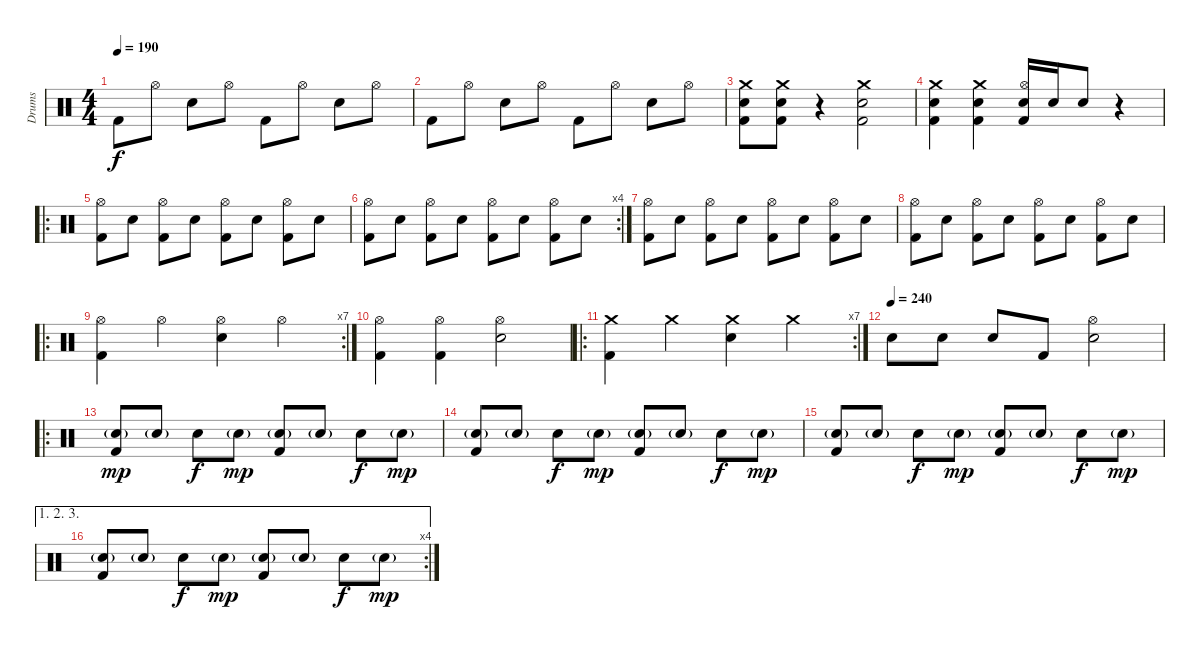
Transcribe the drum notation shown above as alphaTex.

\track ("Drums" "Drums") {instrument percussion}
\staff {score}
\articulation defaults
\ts (4 4)
\tempo 190
\clef neutral
\ks c "Kick (hit) 2".8{dy f} "Hi-Hat (open)".8 "Electric Snare (hit)".8 "Hi-Hat (open)".8 "Kick (hit) 2".8 "Hi-Hat (open)".8 "Electric Snare (hit)".8 "Hi-Hat (open)".8
|
"Kick (hit) 2".8 "Hi-Hat (open)".8 "Electric Snare (hit)".8 "Hi-Hat (open)".8 "Kick (hit) 2".8 "Hi-Hat (open)".8 "Electric Snare (hit)".8 "Hi-Hat (open)".8 |
("Crash medium (hit)" "Electric Snare (hit)" "Kick (hit) 2").8 ("Crash medium (hit)" "Electric Snare (hit)" "Kick (hit) 2").8 r.4 ("Crash medium (hit)" "Electric Snare (hit)" "Kick (hit) 2").2 |
("Crash medium (hit)" "Electric Snare (hit)" "Kick (hit) 2").4 ("Crash medium (hit)" "Electric Snare (hit)" "Kick (hit) 2").4 ("Hi-Hat (open)" "Electric Snare (hit)" "Kick (hit) 2").16 "Electric Snare (hit)".16 "Electric Snare (hit)".8 r.4 |
\ro
("Hi-Hat (open)" "Kick (hit) 2").8 "Electric Snare (hit)".8 ("Hi-Hat (open)" "Kick (hit) 2").8 "Electric Snare (hit)".8 ("Hi-Hat (open)" "Kick (hit) 2").8 "Electric Snare (hit)".8 ("Hi-Hat (open)" "Kick (hit) 2").8 "Electric Snare (hit)".8 |
\rc 4
("Hi-Hat (open)" "Kick (hit) 2").8 "Electric Snare (hit)".8 ("Hi-Hat (open)" "Kick (hit) 2").8 "Electric Snare (hit)".8 ("Hi-Hat (open)" "Kick (hit) 2").8 "Electric Snare (hit)".8 ("Hi-Hat (open)" "Kick (hit) 2").8 "Electric Snare (hit)".8 |
("Hi-Hat (open)" "Kick (hit) 2").8 "Electric Snare (hit)".8 ("Hi-Hat (open)" "Kick (hit) 2").8 "Electric Snare (hit)".8 ("Hi-Hat (open)" "Kick (hit) 2").8 "Electric Snare (hit)".8 ("Hi-Hat (open)" "Kick (hit) 2").8 "Electric Snare (hit)".8 |
("Hi-Hat (open)" "Kick (hit) 2").8 "Electric Snare (hit)".8 ("Hi-Hat (open)" "Kick (hit) 2").8 "Electric Snare (hit)".8 ("Hi-Hat (open)" "Kick (hit) 2").8 "Electric Snare (hit)".8 ("Hi-Hat (open)" "Kick (hit) 2").8 "Electric Snare (hit)".8 |
\ro
\rc 7
("Hi-Hat (open)" "Kick (hit) 2").4 "Hi-Hat (open)".4 ("Hi-Hat (open)" "Electric Snare (hit)").4 "Hi-Hat (open)".4 |
("Hi-Hat (open)" "Kick (hit) 2").4 ("Hi-Hat (open)" "Kick (hit) 2").4 ("Hi-Hat (open)" "Electric Snare (hit)").2 |
\ro
\rc 7
("Crash medium (hit)" "Kick (hit) 2").4 "Crash medium (hit)".4 ("Crash medium (hit)" "Electric Snare (hit)").4 "Crash medium (hit)".4 |
\tempo (240)
"Electric Snare (hit)".8 "Electric Snare (hit)".8 "Electric Snare (hit)".8 "Kick (hit) 2".8 ("Hi-Hat (open)" "Electric Snare (hit)").2 |
\ro
("Electric Snare (hit)"{g} "Kick (hit) 2").8{dy mp} "Electric Snare (hit)"{g}.8 "Electric Snare (hit)".8{dy f} "Electric Snare (hit)"{g}.8{dy mp} ("Electric Snare (hit)"{g} "Kick (hit) 2").8 "Electric Snare (hit)"{g}.8 "Electric Snare (hit)".8{dy f} "Electric Snare (hit)"{g}.8{dy mp} |
("Electric Snare (hit)"{g} "Kick (hit) 2").8 "Electric Snare (hit)"{g}.8 "Electric Snare (hit)".8{dy f} "Electric Snare (hit)"{g}.8{dy mp} ("Electric Snare (hit)"{g} "Kick (hit) 2").8 "Electric Snare (hit)"{g}.8 "Electric Snare (hit)".8{dy f} "Electric Snare (hit)"{g}.8{dy mp} |
("Electric Snare (hit)"{g} "Kick (hit) 2").8 "Electric Snare (hit)"{g}.8 "Electric Snare (hit)".8{dy f} "Electric Snare (hit)"{g}.8{dy mp} ("Electric Snare (hit)"{g} "Kick (hit) 2").8 "Electric Snare (hit)"{g}.8 "Electric Snare (hit)".8{dy f} "Electric Snare (hit)"{g}.8{dy mp} |
\ae (1 2 3)
\rc 4
("Electric Snare (hit)"{g} "Kick (hit) 2").8 "Electric Snare (hit)"{g}.8 "Electric Snare (hit)".8{dy f} "Electric Snare (hit)"{g}.8{dy mp} ("Electric Snare (hit)"{g} "Kick (hit) 2").8 "Electric Snare (hit)"{g}.8 "Electric Snare (hit)".8{dy f} "Electric Snare (hit)"{g}.8{dy mp}
